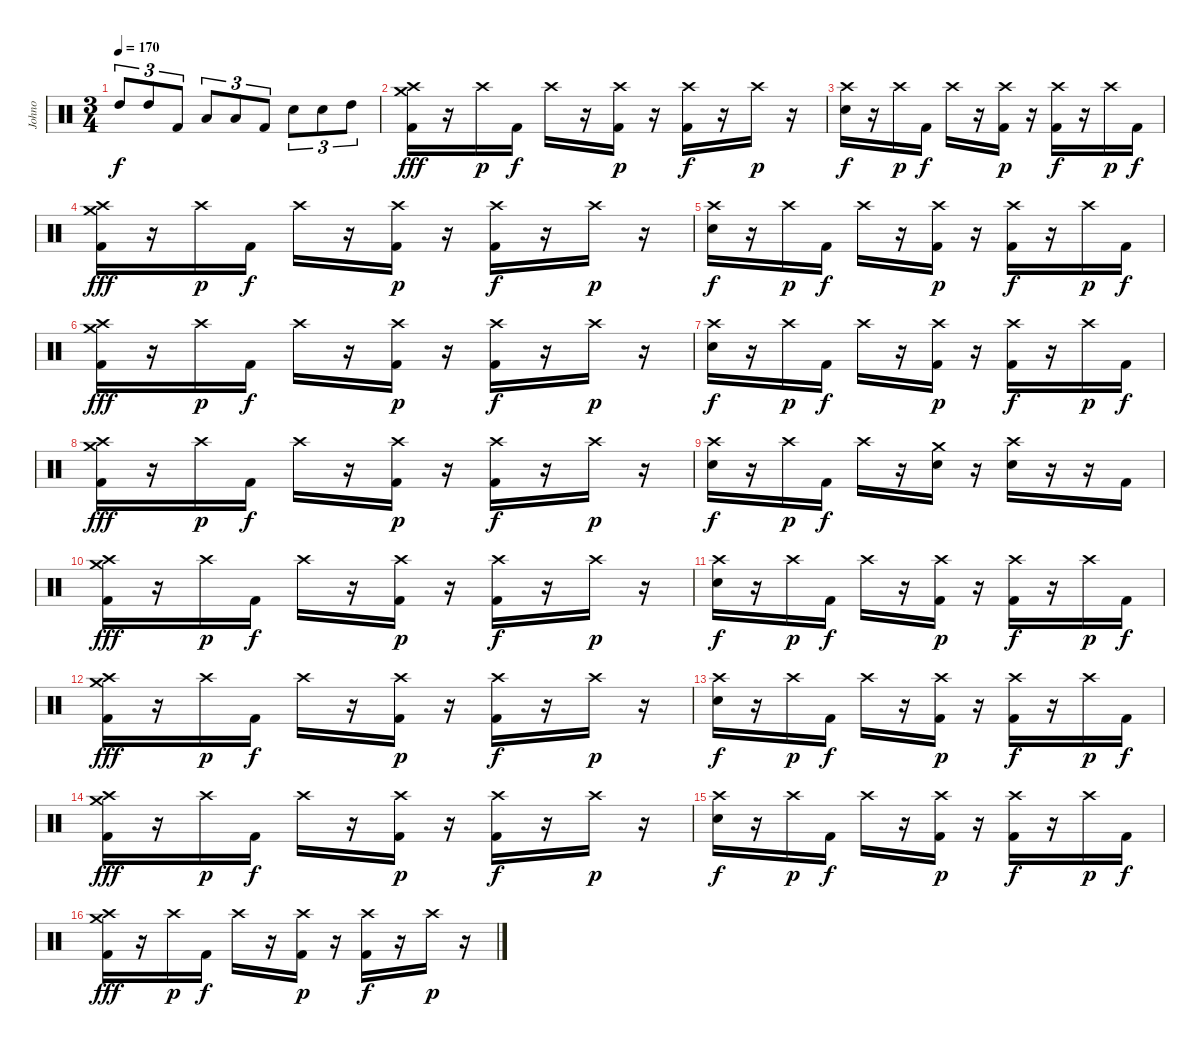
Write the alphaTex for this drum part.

\track ("Johno" "Johno") {instrument percussion}
\staff {score}
\articulation defaults
\ts (3 4)
\tempo 170
\clef neutral
\ks c "High Tom (hit)".8{tu (3 2) dy f} "High Tom (hit)".8{tu (3 2)} "Kick (hit) 2".8{tu (3 2)} "Low Floor Tom (hit)".8{tu (3 2)} "Low Floor Tom (hit)".8{tu (3 2)} "Kick (hit) 2".8{tu (3 2)} "Electric Snare (hit)".8{tu (3 2)} "Electric Snare (hit)".8{tu (3 2)} "High Tom (hit)".8{tu (3 2)}
|
("Crash medium (hit)" "Crash high (hit)" "Kick (hit) 2").16{dy fff} r.16 "Crash high (hit)".16{dy p} "Kick (hit) 2".16{dy f} "Crash high (hit)".16 r.16 ("Crash high (hit)" "Kick (hit) 2").16{dy p} r.16 ("Crash high (hit)" "Kick (hit) 2").16{dy f} r.16 "Crash high (hit)".16{dy p} r.16 |
("Crash high (hit)" "Electric Snare (hit)").16{dy f} r.16 "Crash high (hit)".16{dy p} "Kick (hit) 2".16{dy f} "Crash high (hit)".16 r.16 ("Crash high (hit)" "Kick (hit) 2").16{dy p} r.16 ("Crash high (hit)" "Kick (hit) 2").16{dy f} r.16 "Crash high (hit)".16{dy p} "Kick (hit) 2".16{dy f} |
("Crash medium (hit)" "Crash high (hit)" "Kick (hit) 2").16{dy fff} r.16 "Crash high (hit)".16{dy p} "Kick (hit) 2".16{dy f} "Crash high (hit)".16 r.16 ("Crash high (hit)" "Kick (hit) 2").16{dy p} r.16 ("Crash high (hit)" "Kick (hit) 2").16{dy f} r.16 "Crash high (hit)".16{dy p} r.16 |
("Crash high (hit)" "Electric Snare (hit)").16{dy f} r.16 "Crash high (hit)".16{dy p} "Kick (hit) 2".16{dy f} "Crash high (hit)".16 r.16 ("Crash high (hit)" "Kick (hit) 2").16{dy p} r.16 ("Crash high (hit)" "Kick (hit) 2").16{dy f} r.16 "Crash high (hit)".16{dy p} "Kick (hit) 2".16{dy f} |
("Crash medium (hit)" "Crash high (hit)" "Kick (hit) 2").16{dy fff} r.16 "Crash high (hit)".16{dy p} "Kick (hit) 2".16{dy f} "Crash high (hit)".16 r.16 ("Crash high (hit)" "Kick (hit) 2").16{dy p} r.16 ("Crash high (hit)" "Kick (hit) 2").16{dy f} r.16 "Crash high (hit)".16{dy p} r.16 |
("Crash high (hit)" "Electric Snare (hit)").16{dy f} r.16 "Crash high (hit)".16{dy p} "Kick (hit) 2".16{dy f} "Crash high (hit)".16 r.16 ("Crash high (hit)" "Kick (hit) 2").16{dy p} r.16 ("Crash high (hit)" "Kick (hit) 2").16{dy f} r.16 "Crash high (hit)".16{dy p} "Kick (hit) 2".16{dy f} |
("Crash medium (hit)" "Crash high (hit)" "Kick (hit) 2").16{dy fff} r.16 "Crash high (hit)".16{dy p} "Kick (hit) 2".16{dy f} "Crash high (hit)".16 r.16 ("Crash high (hit)" "Kick (hit) 2").16{dy p} r.16 ("Crash high (hit)" "Kick (hit) 2").16{dy f} r.16 "Crash high (hit)".16{dy p} r.16 |
("Crash high (hit)" "Electric Snare (hit)").16{dy f} r.16 "Crash high (hit)".16{dy p} "Kick (hit) 2".16{dy f} "Crash high (hit)".16 r.16 ("Crash medium (hit)" "Electric Snare (hit)").16 r.16 ("Crash high (hit)" "Electric Snare (hit)").16 r.16 r.16 "Kick (hit) 2".16 |
("Crash medium (hit)" "Crash high (hit)" "Kick (hit) 2").16{dy fff} r.16 "Crash high (hit)".16{dy p} "Kick (hit) 2".16{dy f} "Crash high (hit)".16 r.16 ("Crash high (hit)" "Kick (hit) 2").16{dy p} r.16 ("Crash high (hit)" "Kick (hit) 2").16{dy f} r.16 "Crash high (hit)".16{dy p} r.16 |
("Crash high (hit)" "Electric Snare (hit)").16{dy f} r.16 "Crash high (hit)".16{dy p} "Kick (hit) 2".16{dy f} "Crash high (hit)".16 r.16 ("Crash high (hit)" "Kick (hit) 2").16{dy p} r.16 ("Crash high (hit)" "Kick (hit) 2").16{dy f} r.16 "Crash high (hit)".16{dy p} "Kick (hit) 2".16{dy f} |
("Crash medium (hit)" "Crash high (hit)" "Kick (hit) 2").16{dy fff} r.16 "Crash high (hit)".16{dy p} "Kick (hit) 2".16{dy f} "Crash high (hit)".16 r.16 ("Crash high (hit)" "Kick (hit) 2").16{dy p} r.16 ("Crash high (hit)" "Kick (hit) 2").16{dy f} r.16 "Crash high (hit)".16{dy p} r.16 |
("Crash high (hit)" "Electric Snare (hit)").16{dy f} r.16 "Crash high (hit)".16{dy p} "Kick (hit) 2".16{dy f} "Crash high (hit)".16 r.16 ("Crash high (hit)" "Kick (hit) 2").16{dy p} r.16 ("Crash high (hit)" "Kick (hit) 2").16{dy f} r.16 "Crash high (hit)".16{dy p} "Kick (hit) 2".16{dy f} |
("Crash medium (hit)" "Crash high (hit)" "Kick (hit) 2").16{dy fff} r.16 "Crash high (hit)".16{dy p} "Kick (hit) 2".16{dy f} "Crash high (hit)".16 r.16 ("Crash high (hit)" "Kick (hit) 2").16{dy p} r.16 ("Crash high (hit)" "Kick (hit) 2").16{dy f} r.16 "Crash high (hit)".16{dy p} r.16 |
("Crash high (hit)" "Electric Snare (hit)").16{dy f} r.16 "Crash high (hit)".16{dy p} "Kick (hit) 2".16{dy f} "Crash high (hit)".16 r.16 ("Crash high (hit)" "Kick (hit) 2").16{dy p} r.16 ("Crash high (hit)" "Kick (hit) 2").16{dy f} r.16 "Crash high (hit)".16{dy p} "Kick (hit) 2".16{dy f} |
("Crash medium (hit)" "Crash high (hit)" "Kick (hit) 2").16{dy fff} r.16 "Crash high (hit)".16{dy p} "Kick (hit) 2".16{dy f} "Crash high (hit)".16 r.16 ("Crash high (hit)" "Kick (hit) 2").16{dy p} r.16 ("Crash high (hit)" "Kick (hit) 2").16{dy f} r.16 "Crash high (hit)".16{dy p} r.16
